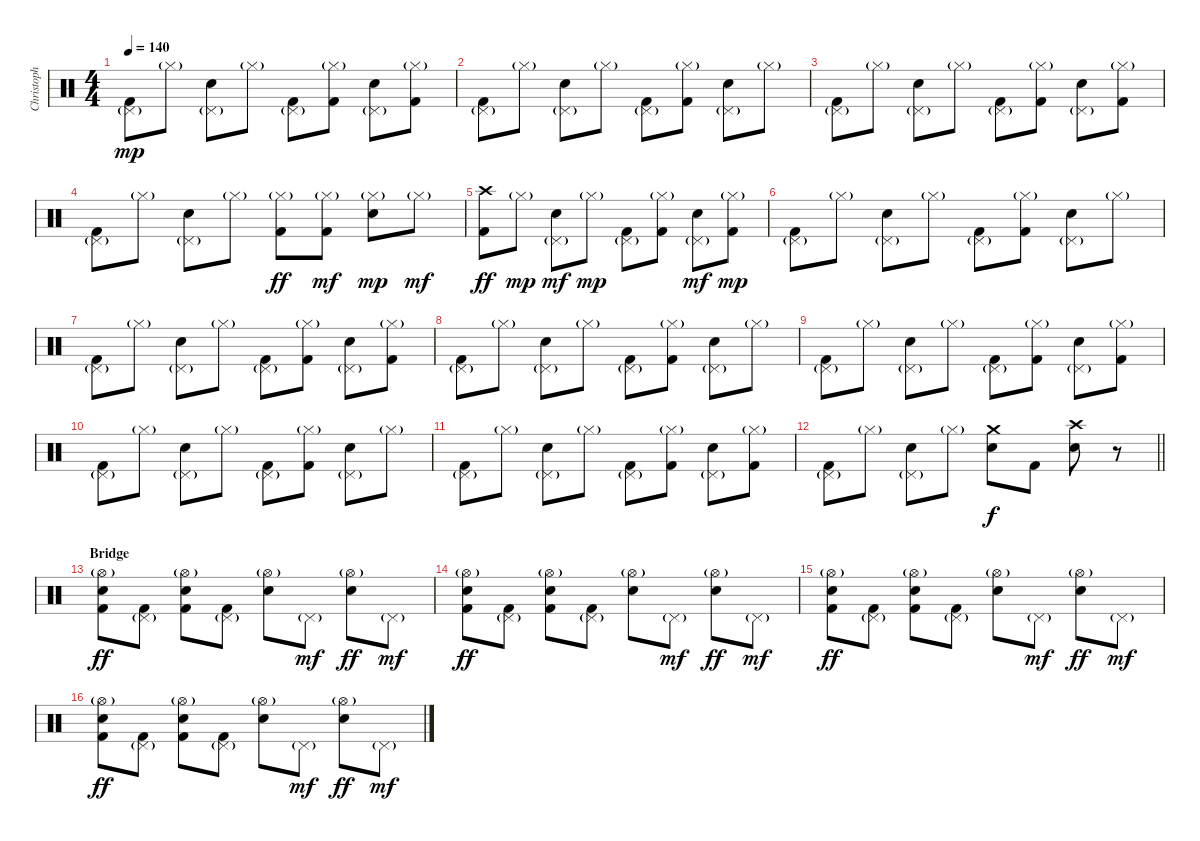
\track ("Christoph" "Christoph") {instrument percussion}
\staff {score}
\articulation defaults
\ts (4 4)
\tempo 140
\clef neutral
\ks c
("Pedal Hi-Hat (hit)"{g} "Kick (hit) 2").8{dy mp} "Hi-Hat (closed)"{g}.8 ("Pedal Hi-Hat (hit)"{g} "Electric Snare (hit)").8 "Hi-Hat (closed)"{g}.8 ("Pedal Hi-Hat (hit)"{g} "Kick (hit) 2").8 ("Hi-Hat (closed)"{g} "Kick (hit) 2").8 ("Pedal Hi-Hat (hit)"{g} "Electric Snare (hit)").8 ("Hi-Hat (closed)"{g} "Kick (hit) 2").8 |
("Pedal Hi-Hat (hit)"{g} "Kick (hit) 2").8 "Hi-Hat (closed)"{g}.8 ("Pedal Hi-Hat (hit)"{g} "Electric Snare (hit)").8 "Hi-Hat (closed)"{g}.8 ("Pedal Hi-Hat (hit)"{g} "Kick (hit) 2").8 ("Hi-Hat (closed)"{g} "Kick (hit) 2").8 ("Pedal Hi-Hat (hit)"{g} "Electric Snare (hit)").8 "Hi-Hat (closed)"{g}.8 |
("Pedal Hi-Hat (hit)"{g} "Kick (hit) 2").8 "Hi-Hat (closed)"{g}.8 ("Pedal Hi-Hat (hit)"{g} "Electric Snare (hit)").8 "Hi-Hat (closed)"{g}.8 ("Pedal Hi-Hat (hit)"{g} "Kick (hit) 2").8 ("Hi-Hat (closed)"{g} "Kick (hit) 2").8 ("Pedal Hi-Hat (hit)"{g} "Electric Snare (hit)").8 ("Hi-Hat (closed)"{g} "Kick (hit) 2").8 |
("Pedal Hi-Hat (hit)"{g} "Kick (hit) 2").8 "Hi-Hat (closed)"{g}.8 ("Pedal Hi-Hat (hit)"{g} "Electric Snare (hit)").8 "Hi-Hat (closed)"{g}.8 ("Hi-Hat (closed)"{g} "Kick (hit) 2").8{dy ff} ("Hi-Hat (closed)"{g} "Kick (hit) 2").8{dy mf} ("Hi-Hat (closed)"{g} "Electric Snare (hit)").8{dy mp} "Hi-Hat (closed)"{g}.8{dy mf} |
("Crash high (hit)" "Kick (hit) 2").8{dy ff} "Hi-Hat (closed)"{g}.8{dy mp} ("Pedal Hi-Hat (hit)"{g} "Electric Snare (hit)").8{dy mf} "Hi-Hat (closed)"{g}.8{dy mp} ("Pedal Hi-Hat (hit)"{g} "Kick (hit) 2").8 ("Hi-Hat (closed)"{g} "Kick (hit) 2").8 ("Pedal Hi-Hat (hit)"{g} "Electric Snare (hit)").8{dy mf} ("Hi-Hat (closed)"{g} "Kick (hit) 2").8{dy mp} |
("Pedal Hi-Hat (hit)"{g} "Kick (hit) 2").8 "Hi-Hat (closed)"{g}.8 ("Pedal Hi-Hat (hit)"{g} "Electric Snare (hit)").8 "Hi-Hat (closed)"{g}.8 ("Pedal Hi-Hat (hit)"{g} "Kick (hit) 2").8 ("Hi-Hat (closed)"{g} "Kick (hit) 2").8 ("Pedal Hi-Hat (hit)"{g} "Electric Snare (hit)").8 "Hi-Hat (closed)"{g}.8 |
("Pedal Hi-Hat (hit)"{g} "Kick (hit) 2").8 "Hi-Hat (closed)"{g}.8 ("Pedal Hi-Hat (hit)"{g} "Electric Snare (hit)").8 "Hi-Hat (closed)"{g}.8 ("Pedal Hi-Hat (hit)"{g} "Kick (hit) 2").8 ("Hi-Hat (closed)"{g} "Kick (hit) 2").8 ("Pedal Hi-Hat (hit)"{g} "Electric Snare (hit)").8 ("Hi-Hat (closed)"{g} "Kick (hit) 2").8 |
("Pedal Hi-Hat (hit)"{g} "Kick (hit) 2").8 "Hi-Hat (closed)"{g}.8 ("Pedal Hi-Hat (hit)"{g} "Electric Snare (hit)").8 "Hi-Hat (closed)"{g}.8 ("Pedal Hi-Hat (hit)"{g} "Kick (hit) 2").8 ("Hi-Hat (closed)"{g} "Kick (hit) 2").8 ("Pedal Hi-Hat (hit)"{g} "Electric Snare (hit)").8 "Hi-Hat (closed)"{g}.8 |
("Pedal Hi-Hat (hit)"{g} "Kick (hit) 2").8 "Hi-Hat (closed)"{g}.8 ("Pedal Hi-Hat (hit)"{g} "Electric Snare (hit)").8 "Hi-Hat (closed)"{g}.8 ("Pedal Hi-Hat (hit)"{g} "Kick (hit) 2").8 ("Hi-Hat (closed)"{g} "Kick (hit) 2").8 ("Pedal Hi-Hat (hit)"{g} "Electric Snare (hit)").8 ("Hi-Hat (closed)"{g} "Kick (hit) 2").8 |
("Pedal Hi-Hat (hit)"{g} "Kick (hit) 2").8 "Hi-Hat (closed)"{g}.8 ("Pedal Hi-Hat (hit)"{g} "Electric Snare (hit)").8 "Hi-Hat (closed)"{g}.8 ("Pedal Hi-Hat (hit)"{g} "Kick (hit) 2").8 ("Hi-Hat (closed)"{g} "Kick (hit) 2").8 ("Pedal Hi-Hat (hit)"{g} "Electric Snare (hit)").8 "Hi-Hat (closed)"{g}.8 |
("Pedal Hi-Hat (hit)"{g} "Kick (hit) 2").8 "Hi-Hat (closed)"{g}.8 ("Pedal Hi-Hat (hit)"{g} "Electric Snare (hit)").8 "Hi-Hat (closed)"{g}.8 ("Pedal Hi-Hat (hit)"{g} "Kick (hit) 2").8 ("Hi-Hat (closed)"{g} "Kick (hit) 2").8 ("Pedal Hi-Hat (hit)"{g} "Electric Snare (hit)").8 ("Hi-Hat (closed)"{g} "Kick (hit) 2").8 |
\barLineRight lightlight
("Pedal Hi-Hat (hit)"{g} "Kick (hit) 2").8 "Hi-Hat (closed)"{g}.8 ("Pedal Hi-Hat (hit)"{g} "Electric Snare (hit)").8 "Hi-Hat (closed)"{g}.8 ("Crash medium (hit)" "Electric Snare (hit)").8{dy f} "Kick (hit) 2".8 ("Crash high (hit)" "Electric Snare (hit)").8 r.8 |
\section ("" "Bridge")
("Hi-Hat (open)"{g} "Electric Snare (hit)" "Kick (hit) 2").8{dy ff} ("Pedal Hi-Hat (hit)"{g} "Kick (hit) 2").8 ("Hi-Hat (open)"{g} "Electric Snare (hit)" "Kick (hit) 2").8 ("Pedal Hi-Hat (hit)"{g} "Kick (hit) 2").8 ("Hi-Hat (open)"{g} "Electric Snare (hit)").8 "Pedal Hi-Hat (hit)"{g}.8{dy mf} ("Hi-Hat (open)"{g} "Electric Snare (hit)").8{dy ff} "Pedal Hi-Hat (hit)"{g}.8{dy mf} |
("Hi-Hat (open)"{g} "Electric Snare (hit)" "Kick (hit) 2").8{dy ff} ("Pedal Hi-Hat (hit)"{g} "Kick (hit) 2").8 ("Hi-Hat (open)"{g} "Electric Snare (hit)" "Kick (hit) 2").8 ("Pedal Hi-Hat (hit)"{g} "Kick (hit) 2").8 ("Hi-Hat (open)"{g} "Electric Snare (hit)").8 "Pedal Hi-Hat (hit)"{g}.8{dy mf} ("Hi-Hat (open)"{g} "Electric Snare (hit)").8{dy ff} "Pedal Hi-Hat (hit)"{g}.8{dy mf} |
("Hi-Hat (open)"{g} "Electric Snare (hit)" "Kick (hit) 2").8{dy ff} ("Pedal Hi-Hat (hit)"{g} "Kick (hit) 2").8 ("Hi-Hat (open)"{g} "Electric Snare (hit)" "Kick (hit) 2").8 ("Pedal Hi-Hat (hit)"{g} "Kick (hit) 2").8 ("Hi-Hat (open)"{g} "Electric Snare (hit)").8 "Pedal Hi-Hat (hit)"{g}.8{dy mf} ("Hi-Hat (open)"{g} "Electric Snare (hit)").8{dy ff} "Pedal Hi-Hat (hit)"{g}.8{dy mf} |
("Hi-Hat (open)"{g} "Electric Snare (hit)" "Kick (hit) 2").8{dy ff} ("Pedal Hi-Hat (hit)"{g} "Kick (hit) 2").8 ("Hi-Hat (open)"{g} "Electric Snare (hit)" "Kick (hit) 2").8 ("Pedal Hi-Hat (hit)"{g} "Kick (hit) 2").8 ("Hi-Hat (open)"{g} "Electric Snare (hit)").8 "Pedal Hi-Hat (hit)"{g}.8{dy mf} ("Hi-Hat (open)"{g} "Electric Snare (hit)").8{dy ff} "Pedal Hi-Hat (hit)"{g}.8{dy mf}
